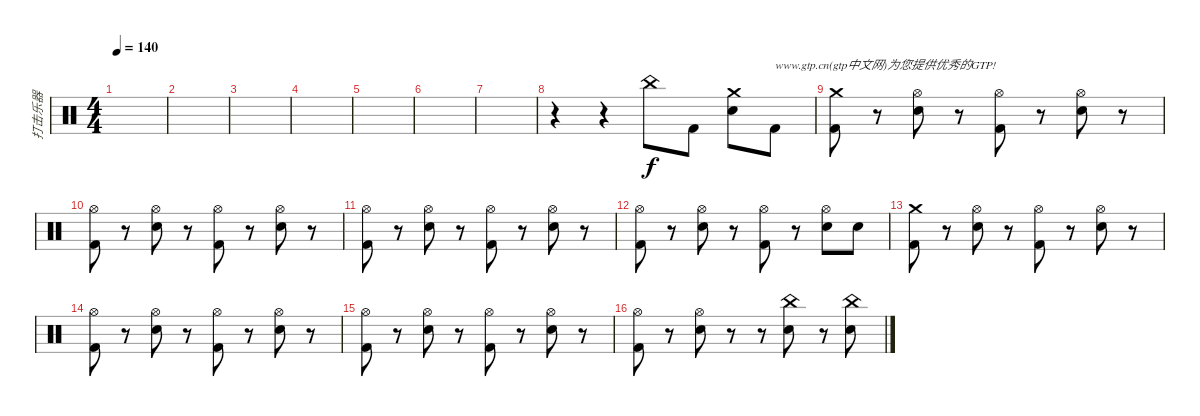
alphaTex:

\track ("打击乐器" "打击乐器") {instrument percussion}
\staff {score}
\articulation defaults
\ts (4 4)
\tempo 140
\clef neutral
\ks c
|
|
|
|
|
|
|
r.4 r.4 "China (hit)".8 "Kick (hit) 2".8 ("Crash medium (hit)" "Snare (hit) 2").8 "Kick (hit) 2".8{txt "www.gtp.cn(gtp中文网)为您提供优秀的GTP!"} |
("Crash medium (hit)" "Kick (hit) 2").8 r.8 ("Hi-Hat (open)" "Snare (hit) 2").8 r.8 ("Hi-Hat (open)" "Kick (hit) 2").8 r.8 ("Hi-Hat (open)" "Snare (hit) 2").8 r.8 |
("Hi-Hat (open)" "Kick (hit) 2").8 r.8 ("Hi-Hat (open)" "Snare (hit) 2").8 r.8 ("Hi-Hat (open)" "Kick (hit) 2").8 r.8 ("Hi-Hat (open)" "Snare (hit) 2").8 r.8 |
("Hi-Hat (open)" "Kick (hit) 2").8 r.8 ("Hi-Hat (open)" "Snare (hit) 2").8 r.8 ("Hi-Hat (open)" "Kick (hit) 2").8 r.8 ("Hi-Hat (open)" "Snare (hit) 2").8 r.8 |
("Hi-Hat (open)" "Kick (hit) 2").8 r.8 ("Hi-Hat (open)" "Snare (hit) 2").8 r.8 ("Hi-Hat (open)" "Kick (hit) 2").8 r.8 ("Hi-Hat (open)" "Snare (hit) 2").8 "Snare (hit) 2".8 |
("Crash medium (hit)" "Kick (hit) 2").8 r.8 ("Hi-Hat (open)" "Snare (hit) 2").8 r.8 ("Hi-Hat (open)" "Kick (hit) 2").8 r.8 ("Hi-Hat (open)" "Snare (hit) 2").8 r.8 |
("Hi-Hat (open)" "Kick (hit) 2").8 r.8 ("Hi-Hat (open)" "Snare (hit) 2").8 r.8 ("Hi-Hat (open)" "Kick (hit) 2").8 r.8 ("Hi-Hat (open)" "Snare (hit) 2").8 r.8 |
("Hi-Hat (open)" "Kick (hit) 2").8 r.8 ("Hi-Hat (open)" "Snare (hit) 2").8 r.8 ("Hi-Hat (open)" "Kick (hit) 2").8 r.8 ("Hi-Hat (open)" "Snare (hit) 2").8 r.8 |
("Hi-Hat (open)" "Kick (hit) 2").8 r.8 ("Hi-Hat (open)" "Snare (hit) 2").8 r.8 r.8 ("China (hit)" "Snare (hit) 2").8 r.8 ("China (hit)" "Snare (hit) 2").8
